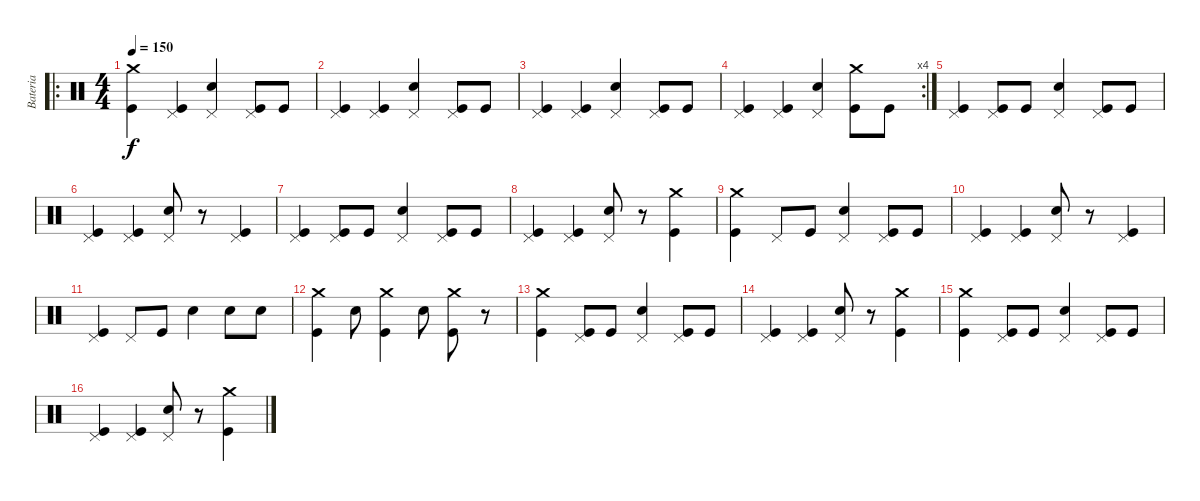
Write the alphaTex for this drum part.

\track ("Bateria" "Bateria") {instrument percussion}
\staff {score}
\articulation defaults
\ro
\ts (4 4)
\tempo 150
\clef neutral
\ks c
("Crash medium (hit)" "Kick (hit)").4{dy f} ("Pedal Hi-Hat (hit)" "Kick (hit)").4 ("Pedal Hi-Hat (hit)" "Snare (hit) 2").4 ("Pedal Hi-Hat (hit)" "Kick (hit)").8 "Kick (hit)".8 |
("Pedal Hi-Hat (hit)" "Kick (hit)").4 ("Pedal Hi-Hat (hit)" "Kick (hit)").4 ("Pedal Hi-Hat (hit)" "Snare (hit) 2").4 ("Pedal Hi-Hat (hit)" "Kick (hit)").8 "Kick (hit)".8 |
("Pedal Hi-Hat (hit)" "Kick (hit)").4 ("Pedal Hi-Hat (hit)" "Kick (hit)").4 ("Pedal Hi-Hat (hit)" "Snare (hit) 2").4 ("Pedal Hi-Hat (hit)" "Kick (hit)").8 "Kick (hit)".8 |
\rc 4
("Pedal Hi-Hat (hit)" "Kick (hit)").4 ("Pedal Hi-Hat (hit)" "Kick (hit)").4 ("Pedal Hi-Hat (hit)" "Snare (hit) 2").4 ("Crash medium (hit)" "Kick (hit)").8 "Kick (hit)".8 |
("Pedal Hi-Hat (hit)" "Kick (hit)").4 ("Pedal Hi-Hat (hit)" "Kick (hit)").8 "Kick (hit)".8 ("Pedal Hi-Hat (hit)" "Snare (hit) 2").4 ("Pedal Hi-Hat (hit)" "Kick (hit)").8 "Kick (hit)".8 |
("Pedal Hi-Hat (hit)" "Kick (hit)").4 ("Pedal Hi-Hat (hit)" "Kick (hit)").4 ("Pedal Hi-Hat (hit)" "Snare (hit) 2").8 r.8 ("Pedal Hi-Hat (hit)" "Kick (hit)").4 |
("Pedal Hi-Hat (hit)" "Kick (hit)").4 ("Pedal Hi-Hat (hit)" "Kick (hit)").8 "Kick (hit)".8 ("Pedal Hi-Hat (hit)" "Snare (hit) 2").4 ("Pedal Hi-Hat (hit)" "Kick (hit)").8 "Kick (hit)".8 |
("Pedal Hi-Hat (hit)" "Kick (hit)").4 ("Pedal Hi-Hat (hit)" "Kick (hit)").4 ("Pedal Hi-Hat (hit)" "Snare (hit) 2").8 r.8 ("Crash medium (hit)" "Kick (hit)").4 |
("Crash medium (hit)" "Kick (hit)").4 "Pedal Hi-Hat (hit)".8 "Kick (hit)".8 ("Pedal Hi-Hat (hit)" "Snare (hit) 2").4 ("Pedal Hi-Hat (hit)" "Kick (hit)").8 "Kick (hit)".8 |
("Pedal Hi-Hat (hit)" "Kick (hit)").4 ("Pedal Hi-Hat (hit)" "Kick (hit)").4 ("Pedal Hi-Hat (hit)" "Snare (hit) 2").8 r.8 ("Pedal Hi-Hat (hit)" "Kick (hit)").4 |
("Pedal Hi-Hat (hit)" "Kick (hit)").4 "Pedal Hi-Hat (hit)".8 "Kick (hit)".8 "Snare (hit) 2".4 "Snare (hit) 2".8 "Snare (hit) 2".8 |
("Crash medium (hit)" "Kick (hit)").4 "Snare (hit) 2".8 ("Crash medium (hit)" "Kick (hit)").4 "Snare (hit) 2".8 ("Crash medium (hit)" "Kick (hit)").8 r.8 |
("Crash medium (hit)" "Kick (hit)").4 ("Pedal Hi-Hat (hit)" "Kick (hit)").8 "Kick (hit)".8 ("Pedal Hi-Hat (hit)" "Snare (hit) 2").4 ("Pedal Hi-Hat (hit)" "Kick (hit)").8 "Kick (hit)".8 |
("Pedal Hi-Hat (hit)" "Kick (hit)").4 ("Pedal Hi-Hat (hit)" "Kick (hit)").4 ("Pedal Hi-Hat (hit)" "Snare (hit) 2").8 r.8 ("Crash medium (hit)" "Kick (hit)").4 |
("Crash medium (hit)" "Kick (hit)").4 ("Pedal Hi-Hat (hit)" "Kick (hit)").8 "Kick (hit)".8 ("Pedal Hi-Hat (hit)" "Snare (hit) 2").4 ("Pedal Hi-Hat (hit)" "Kick (hit)").8 "Kick (hit)".8 |
("Pedal Hi-Hat (hit)" "Kick (hit)").4 ("Pedal Hi-Hat (hit)" "Kick (hit)").4 ("Pedal Hi-Hat (hit)" "Snare (hit) 2").8 r.8 ("Crash medium (hit)" "Kick (hit)").4
